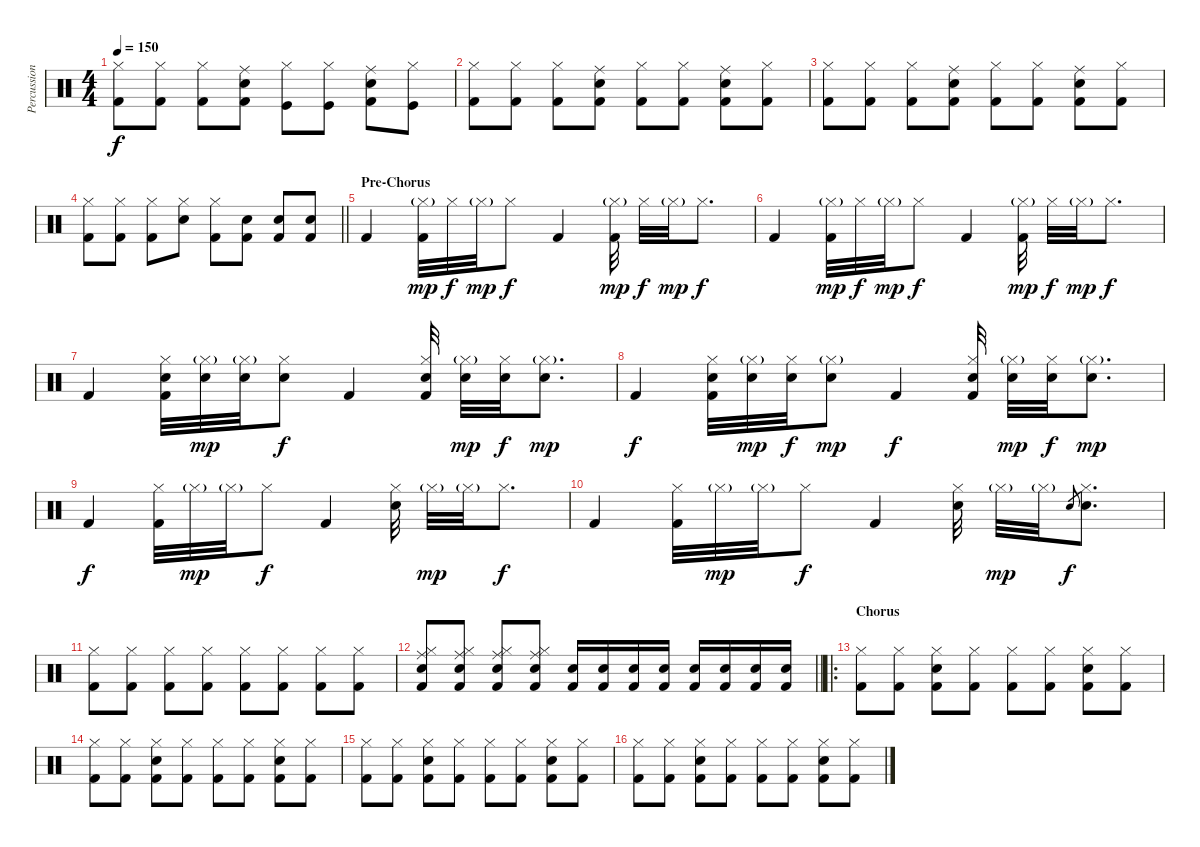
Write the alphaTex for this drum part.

\track ("Percussion" "Percussion") {instrument percussion}
\staff {score}
\articulation defaults
\ts (4 4)
\tempo 150
\clef neutral
\ks c
("Kick (hit) 2" "Hi-Hat (closed)").8{dy f} ("Kick (hit) 2" "Hi-Hat (closed)").8 ("Kick (hit) 2" "Hi-Hat (closed)").8 ("Kick (hit) 2" "Ride (middle)" "Snare (hit) 2").8 ("Hi-Hat (closed)" "Kick (hit)").8 ("Hi-Hat (closed)" "Kick (hit)").8 ("Kick (hit) 2" "Ride (middle)" "Snare (hit) 2").8 ("Hi-Hat (closed)" "Kick (hit)").8 |
("Kick (hit) 2" "Hi-Hat (closed)").8 ("Kick (hit) 2" "Hi-Hat (closed)").8 ("Kick (hit) 2" "Hi-Hat (closed)").8 ("Kick (hit) 2" "Snare (hit) 2" "Ride (middle)").8 ("Kick (hit) 2" "Hi-Hat (closed)").8 ("Kick (hit) 2" "Hi-Hat (closed)").8 ("Kick (hit) 2" "Snare (hit) 2" "Ride (middle)").8 ("Kick (hit) 2" "Hi-Hat (closed)").8 |
("Kick (hit) 2" "Hi-Hat (closed)").8 ("Kick (hit) 2" "Hi-Hat (closed)").8 ("Kick (hit) 2" "Hi-Hat (closed)").8 ("Kick (hit) 2" "Snare (hit) 2" "Ride (middle)").8 ("Kick (hit) 2" "Hi-Hat (closed)").8 ("Kick (hit) 2" "Hi-Hat (closed)").8 ("Kick (hit) 2" "Snare (hit) 2" "Ride (middle)").8 ("Kick (hit) 2" "Hi-Hat (closed)").8 |
\barLineRight lightlight
("Kick (hit) 2" "Hi-Hat (closed)").8 ("Kick (hit) 2" "Hi-Hat (closed)").8 ("Kick (hit) 2" "Hi-Hat (closed)").8 ("Hi-Hat (closed)" "Snare (hit) 2").8 ("Kick (hit) 2" "Hi-Hat (closed)").8 ("Kick (hit) 2" "Snare (hit) 2").8 ("Kick (hit) 2" "Snare (hit) 2").8 ("Kick (hit) 2" "Snare (hit) 2").8 |
\section ("" "Pre-Chorus")
"Kick (hit) 2".4 ("Hi-Hat (closed)"{g} "Kick (hit) 2").32{dy mp} "Hi-Hat (closed)".32{dy f} "Hi-Hat (closed)"{g}.32{dy mp} "Hi-Hat (closed)".8{dy f} "Kick (hit) 2".4 ("Hi-Hat (closed)"{g} "Kick (hit) 2").32{dy mp} "Hi-Hat (closed)".32{dy f} "Hi-Hat (closed)"{g}.32{dy mp} "Hi-Hat (closed)".8{d dy f} |
"Kick (hit) 2".4 ("Hi-Hat (closed)"{g} "Kick (hit) 2").32{dy mp} "Hi-Hat (closed)".32{dy f} "Hi-Hat (closed)"{g}.32{dy mp} "Hi-Hat (closed)".8{dy f} "Kick (hit) 2".4 ("Hi-Hat (closed)"{g} "Kick (hit) 2").32{dy mp} "Hi-Hat (closed)".32{dy f} "Hi-Hat (closed)"{g}.32{dy mp} "Hi-Hat (closed)".8{d dy f} |
"Kick (hit) 2".4 ("Hi-Hat (closed)" "Snare (hit) 2" "Kick (hit) 2").32 ("Hi-Hat (closed)"{g} "Snare (hit) 2").32{dy mp} ("Hi-Hat (closed)"{g} "Snare (hit) 2").32 ("Hi-Hat (closed)" "Snare (hit) 2").8{dy f} "Kick (hit) 2".4 ("Hi-Hat (closed)" "Snare (hit) 2" "Kick (hit) 2").32 ("Hi-Hat (closed)"{g} "Snare (hit) 2").32{dy mp} ("Hi-Hat (closed)" "Snare (hit) 2").32{dy f} ("Hi-Hat (closed)"{g} "Snare (hit) 2").8{d dy mp} |
"Kick (hit) 2".4{dy f} ("Hi-Hat (closed)" "Kick (hit) 2" "Snare (hit) 2").32 ("Hi-Hat (closed)"{g} "Snare (hit) 2").32{dy mp} ("Hi-Hat (closed)" "Snare (hit) 2").32{dy f} ("Hi-Hat (closed)"{g} "Snare (hit) 2").8{dy mp} "Kick (hit) 2".4{dy f} ("Hi-Hat (closed)" "Kick (hit) 2" "Snare (hit) 2").32 ("Hi-Hat (closed)"{g} "Snare (hit) 2").32{dy mp} ("Hi-Hat (closed)" "Snare (hit) 2").32{dy f} ("Hi-Hat (closed)"{g} "Snare (hit) 2").8{d dy mp} |
"Kick (hit) 2".4{dy f} ("Hi-Hat (closed)" "Kick (hit) 2").32 "Hi-Hat (closed)"{g}.32{dy mp} "Hi-Hat (closed)"{g}.32 "Hi-Hat (closed)".8{dy f} "Kick (hit) 2".4 ("Hi-Hat (closed)" "Snare (hit) 2").32 "Hi-Hat (closed)"{g}.32{dy mp} "Hi-Hat (closed)"{g}.32 "Hi-Hat (closed)".8{d dy f} |
"Kick (hit) 2".4 ("Hi-Hat (closed)" "Kick (hit) 2").32 "Hi-Hat (closed)"{g}.32{dy mp} "Hi-Hat (closed)"{g}.32 "Hi-Hat (closed)".8{dy f} "Kick (hit) 2".4 ("Hi-Hat (closed)" "Snare (hit) 2").32 "Hi-Hat (closed)"{g}.32{dy mp} "Hi-Hat (closed)"{g}.32 "Snare (hit) 2".8{gr dy f} ("Hi-Hat (closed)" "Snare (hit) 2").8{d} |
("Kick (hit) 2" "Hi-Hat (closed)").8 ("Kick (hit) 2" "Hi-Hat (closed)").8 ("Kick (hit) 2" "Hi-Hat (closed)").8 ("Kick (hit) 2" "Hi-Hat (closed)").8 ("Kick (hit) 2" "Hi-Hat (closed)").8 ("Kick (hit) 2" "Hi-Hat (closed)").8 ("Kick (hit) 2" "Hi-Hat (closed)").8 ("Kick (hit) 2" "Hi-Hat (closed)").8 |
\barLineRight lightlight
("Kick (hit) 2" "Ride (middle)" "Hi-Hat (closed)" "Snare (hit) 2").8 ("Kick (hit) 2" "Ride (middle)" "Hi-Hat (closed)" "Snare (hit) 2").8 ("Kick (hit) 2" "Ride (middle)" "Hi-Hat (closed)" "Snare (hit) 2").8 ("Kick (hit) 2" "Ride (middle)" "Hi-Hat (closed)" "Snare (hit) 2").8 ("Kick (hit) 2" "Snare (hit) 2").16 ("Kick (hit) 2" "Snare (hit) 2").16 ("Kick (hit) 2" "Snare (hit) 2").16 ("Kick (hit) 2" "Snare (hit) 2").16 ("Kick (hit) 2" "Snare (hit) 2").16 ("Kick (hit) 2" "Snare (hit) 2").16 ("Kick (hit) 2" "Snare (hit) 2").16 ("Kick (hit) 2" "Snare (hit) 2").16 |
\ro
\section ("" "Chorus")
("Kick (hit) 2" "Hi-Hat (closed)").8 ("Kick (hit) 2" "Hi-Hat (closed)").8 ("Kick (hit) 2" "Hi-Hat (closed)" "Snare (hit) 2").8 ("Kick (hit) 2" "Hi-Hat (closed)").8 ("Kick (hit) 2" "Hi-Hat (closed)").8 ("Kick (hit) 2" "Hi-Hat (closed)").8 ("Kick (hit) 2" "Hi-Hat (closed)" "Snare (hit) 2").8 ("Kick (hit) 2" "Hi-Hat (closed)").8 |
("Kick (hit) 2" "Hi-Hat (closed)").8 ("Kick (hit) 2" "Hi-Hat (closed)").8 ("Kick (hit) 2" "Hi-Hat (closed)" "Snare (hit) 2").8 ("Kick (hit) 2" "Hi-Hat (closed)").8 ("Kick (hit) 2" "Hi-Hat (closed)").8 ("Kick (hit) 2" "Hi-Hat (closed)").8 ("Kick (hit) 2" "Hi-Hat (closed)" "Snare (hit) 2").8 ("Kick (hit) 2" "Hi-Hat (closed)").8 |
("Kick (hit) 2" "Hi-Hat (closed)").8 ("Kick (hit) 2" "Hi-Hat (closed)").8 ("Kick (hit) 2" "Hi-Hat (closed)" "Snare (hit) 2").8 ("Kick (hit) 2" "Hi-Hat (closed)").8 ("Kick (hit) 2" "Hi-Hat (closed)").8 ("Kick (hit) 2" "Hi-Hat (closed)").8 ("Kick (hit) 2" "Hi-Hat (closed)" "Snare (hit) 2").8 ("Kick (hit) 2" "Hi-Hat (closed)").8 |
("Kick (hit) 2" "Hi-Hat (closed)").8 ("Kick (hit) 2" "Hi-Hat (closed)").8 ("Kick (hit) 2" "Hi-Hat (closed)" "Snare (hit) 2").8 ("Kick (hit) 2" "Hi-Hat (closed)").8 ("Kick (hit) 2" "Hi-Hat (closed)").8 ("Kick (hit) 2" "Hi-Hat (closed)").8 ("Kick (hit) 2" "Hi-Hat (closed)" "Snare (hit) 2").8 ("Kick (hit) 2" "Hi-Hat (closed)").8
